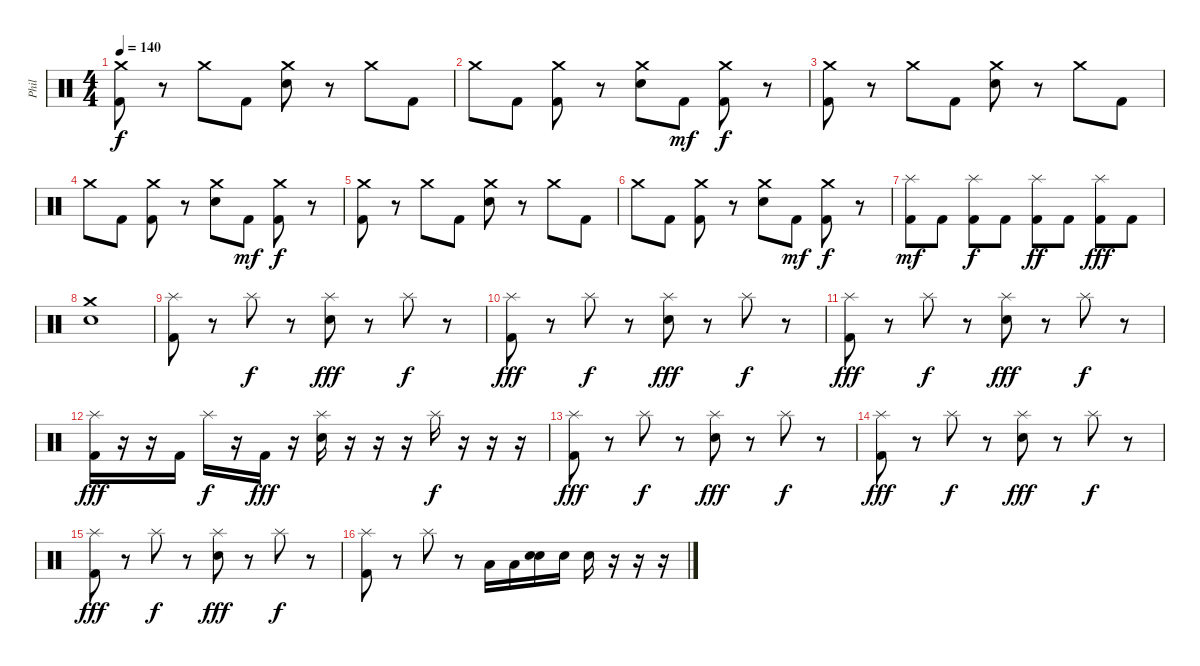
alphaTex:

\track ("Phil" "Phil") {instrument percussion}
\staff {score}
\articulation defaults
\ts (4 4)
\tempo 140
\clef neutral
\ks c
("Crash medium (hit)" "Kick (hit) 2").8{dy f} r.8 "Crash medium (hit)".8 "Kick (hit) 2".8 ("Crash medium (hit)" "Snare (hit) 2").8 r.8 "Crash medium (hit)".8 "Kick (hit) 2".8 |
"Crash medium (hit)".8 "Kick (hit) 2".8 ("Crash medium (hit)" "Kick (hit) 2").8 r.8 ("Crash medium (hit)" "Snare (hit) 2").8 "Kick (hit) 2".8{dy mf} ("Crash medium (hit)" "Kick (hit) 2").8{dy f} r.8 |
("Crash medium (hit)" "Kick (hit) 2").8 r.8 "Crash medium (hit)".8 "Kick (hit) 2".8 ("Crash medium (hit)" "Snare (hit) 2").8 r.8 "Crash medium (hit)".8 "Kick (hit) 2".8 |
"Crash medium (hit)".8 "Kick (hit) 2".8 ("Crash medium (hit)" "Kick (hit) 2").8 r.8 ("Crash medium (hit)" "Snare (hit) 2").8 "Kick (hit) 2".8{dy mf} ("Crash medium (hit)" "Kick (hit) 2").8{dy f} r.8 |
("Crash medium (hit)" "Kick (hit) 2").8 r.8 "Crash medium (hit)".8 "Kick (hit) 2".8 ("Crash medium (hit)" "Snare (hit) 2").8 r.8 "Crash medium (hit)".8 "Kick (hit) 2".8 |
"Crash medium (hit)".8 "Kick (hit) 2".8 ("Crash medium (hit)" "Kick (hit) 2").8 r.8 ("Crash medium (hit)" "Snare (hit) 2").8 "Kick (hit) 2".8{dy mf} ("Crash medium (hit)" "Kick (hit) 2").8{dy f} r.8 |
("Splash (hit)" "Kick (hit) 2").8{dy mf} "Kick (hit) 2".8 ("Splash (hit)" "Kick (hit) 2").8{dy f} "Kick (hit) 2".8 ("Splash (hit)" "Kick (hit) 2").8{dy ff} "Kick (hit) 2".8 ("Splash (hit)" "Kick (hit) 2").8{dy fff} "Kick (hit) 2".8 |
("Crash medium (hit)" "Snare (hit) 2").1 |
("Splash (hit)" "Kick (hit) 2").8 r.8 "Splash (hit)".8{dy f} r.8 ("Splash (hit)" "Snare (hit) 2").8{dy fff} r.8 "Splash (hit)".8{dy f} r.8 |
("Splash (hit)" "Kick (hit) 2").8{dy fff} r.8 "Splash (hit)".8{dy f} r.8 ("Splash (hit)" "Snare (hit) 2").8{dy fff} r.8 "Splash (hit)".8{dy f} r.8 |
("Splash (hit)" "Kick (hit) 2").8{dy fff} r.8 "Splash (hit)".8{dy f} r.8 ("Splash (hit)" "Snare (hit) 2").8{dy fff} r.8 "Splash (hit)".8{dy f} r.8 |
("Splash (hit)" "Kick (hit) 2").16{dy fff} r.16 r.16 "Kick (hit) 2".16 "Splash (hit)".16{dy f} r.16 "Kick (hit) 2".16{dy fff} r.16 ("Splash (hit)" "Snare (hit) 2").16 r.16 r.16 r.16 "Splash (hit)".16{dy f} r.16 r.16 r.16 |
("Splash (hit)" "Kick (hit) 2").8{dy fff} r.8 "Splash (hit)".8{dy f} r.8 ("Splash (hit)" "Snare (hit) 2").8{dy fff} r.8 "Splash (hit)".8{dy f} r.8 |
("Splash (hit)" "Kick (hit) 2").8{dy fff} r.8 "Splash (hit)".8{dy f} r.8 ("Splash (hit)" "Snare (hit) 2").8{dy fff} r.8 "Splash (hit)".8{dy f} r.8 |
("Splash (hit)" "Kick (hit) 2").8{dy fff} r.8 "Splash (hit)".8{dy f} r.8 ("Splash (hit)" "Snare (hit) 2").8{dy fff} r.8 "Splash (hit)".8{dy f} r.8 |
("Splash (hit)" "Kick (hit) 2").8 r.8 "Splash (hit)".8 r.8 "Low Floor Tom (hit)".16 "Low Floor Tom (hit)".16 ("Snare (hit) 2" "Electric Snare (hit)").16 "Snare (hit) 2".16 "Snare (hit) 2".16 r.16 r.16 r.16
